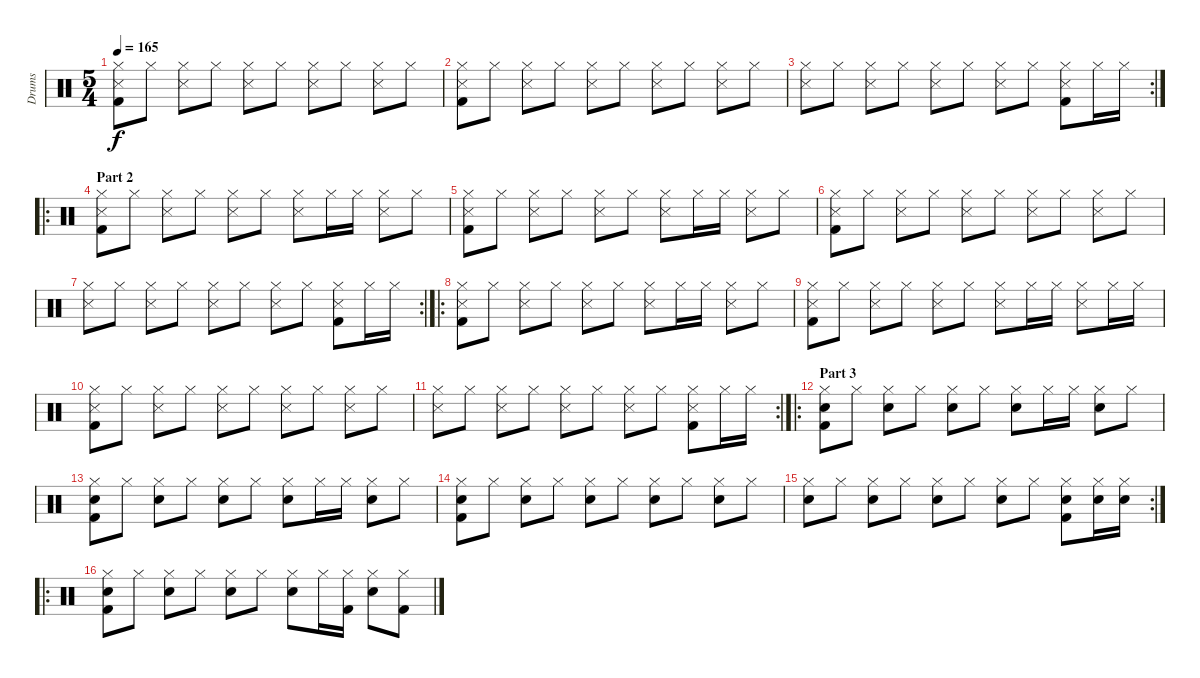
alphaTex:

\track ("Drums" "Drums") {instrument percussion}
\staff {score}
\articulation defaults
\ts (5 4)
\tempo 165
\clef neutral
\ks c
("Hi-Hat (closed)" "Snare (side stick) 3" "Kick (hit) 2").8{dy f} "Hi-Hat (closed)".8 ("Hi-Hat (closed)" "Snare (side stick) 3").8 "Hi-Hat (closed)".8 ("Hi-Hat (closed)" "Snare (side stick) 3").8 "Hi-Hat (closed)".8 ("Hi-Hat (closed)" "Snare (side stick) 3").8 "Hi-Hat (closed)".8 ("Hi-Hat (closed)" "Snare (side stick) 3").8 "Hi-Hat (closed)".8 |
("Hi-Hat (closed)" "Snare (side stick) 3" "Kick (hit) 2").8 "Hi-Hat (closed)".8 ("Hi-Hat (closed)" "Snare (side stick) 3").8 "Hi-Hat (closed)".8 ("Hi-Hat (closed)" "Snare (side stick) 3").8 "Hi-Hat (closed)".8 ("Hi-Hat (closed)" "Snare (side stick) 3").8 "Hi-Hat (closed)".8 ("Hi-Hat (closed)" "Snare (side stick) 3").8 "Hi-Hat (closed)".8 |
\rc 2
("Hi-Hat (closed)" "Snare (side stick) 3").8 "Hi-Hat (closed)".8 ("Hi-Hat (closed)" "Snare (side stick) 3").8 "Hi-Hat (closed)".8 ("Hi-Hat (closed)" "Snare (side stick) 3").8 "Hi-Hat (closed)".8 ("Hi-Hat (closed)" "Snare (side stick) 3").8 "Hi-Hat (closed)".8 ("Hi-Hat (closed)" "Snare (side stick) 3" "Kick (hit) 2").8 "Hi-Hat (closed)".16 "Hi-Hat (closed)".16 |
\ro
\section ("" "Part 2")
("Hi-Hat (closed)" "Snare (side stick) 3" "Kick (hit) 2").8 "Hi-Hat (closed)".8 ("Hi-Hat (closed)" "Snare (side stick) 3").8 "Hi-Hat (closed)".8 ("Hi-Hat (closed)" "Snare (side stick) 3").8 "Hi-Hat (closed)".8 ("Hi-Hat (closed)" "Snare (side stick) 3").8 "Hi-Hat (closed)".16 "Hi-Hat (closed)".16 ("Hi-Hat (closed)" "Snare (side stick) 3").8 "Hi-Hat (closed)".8 |
("Hi-Hat (closed)" "Snare (side stick) 3" "Kick (hit) 2").8 "Hi-Hat (closed)".8 ("Hi-Hat (closed)" "Snare (side stick) 3").8 "Hi-Hat (closed)".8 ("Hi-Hat (closed)" "Snare (side stick) 3").8 "Hi-Hat (closed)".8 ("Hi-Hat (closed)" "Snare (side stick) 3").8 "Hi-Hat (closed)".16 "Hi-Hat (closed)".16 ("Hi-Hat (closed)" "Snare (side stick) 3").8 "Hi-Hat (closed)".8 |
("Hi-Hat (closed)" "Snare (side stick) 3" "Kick (hit) 2").8 "Hi-Hat (closed)".8 ("Hi-Hat (closed)" "Snare (side stick) 3").8 "Hi-Hat (closed)".8 ("Hi-Hat (closed)" "Snare (side stick) 3").8 "Hi-Hat (closed)".8 ("Hi-Hat (closed)" "Snare (side stick) 3").8 "Hi-Hat (closed)".8 ("Hi-Hat (closed)" "Snare (side stick) 3").8 "Hi-Hat (closed)".8 |
\rc 2
("Hi-Hat (closed)" "Snare (side stick) 3").8 "Hi-Hat (closed)".8 ("Hi-Hat (closed)" "Snare (side stick) 3").8 "Hi-Hat (closed)".8 ("Hi-Hat (closed)" "Snare (side stick) 3").8 "Hi-Hat (closed)".8 ("Hi-Hat (closed)" "Snare (side stick) 3").8 "Hi-Hat (closed)".8 ("Hi-Hat (closed)" "Snare (side stick) 3" "Kick (hit) 2").8 "Hi-Hat (closed)".16 "Hi-Hat (closed)".16 |
\ro
("Hi-Hat (closed)" "Snare (side stick) 3" "Kick (hit) 2").8 "Hi-Hat (closed)".8 ("Hi-Hat (closed)" "Snare (side stick) 3").8 "Hi-Hat (closed)".8 ("Hi-Hat (closed)" "Snare (side stick) 3").8 "Hi-Hat (closed)".8 ("Hi-Hat (closed)" "Snare (side stick) 3").8 "Hi-Hat (closed)".16 "Hi-Hat (closed)".16 ("Hi-Hat (closed)" "Snare (side stick) 3").8 "Hi-Hat (closed)".8 |
("Hi-Hat (closed)" "Snare (side stick) 3" "Kick (hit) 2").8 "Hi-Hat (closed)".8 ("Hi-Hat (closed)" "Snare (side stick) 3").8 "Hi-Hat (closed)".8 ("Hi-Hat (closed)" "Snare (side stick) 3").8 "Hi-Hat (closed)".8 ("Hi-Hat (closed)" "Snare (side stick) 3").8 "Hi-Hat (closed)".16 "Hi-Hat (closed)".16 ("Hi-Hat (closed)" "Snare (side stick) 3").8 "Hi-Hat (closed)".16 "Hi-Hat (closed)".16 |
("Hi-Hat (closed)" "Snare (side stick) 3" "Kick (hit) 2").8 "Hi-Hat (closed)".8 ("Hi-Hat (closed)" "Snare (side stick) 3").8 "Hi-Hat (closed)".8 ("Hi-Hat (closed)" "Snare (side stick) 3").8 "Hi-Hat (closed)".8 ("Hi-Hat (closed)" "Snare (side stick) 3").8 "Hi-Hat (closed)".8 ("Hi-Hat (closed)" "Snare (side stick) 3").8 "Hi-Hat (closed)".8 |
\rc 2
("Hi-Hat (closed)" "Snare (side stick) 3").8 "Hi-Hat (closed)".8 ("Hi-Hat (closed)" "Snare (side stick) 3").8 "Hi-Hat (closed)".8 ("Hi-Hat (closed)" "Snare (side stick) 3").8 "Hi-Hat (closed)".8 ("Hi-Hat (closed)" "Snare (side stick) 3").8 "Hi-Hat (closed)".8 ("Hi-Hat (closed)" "Snare (side stick) 3" "Kick (hit) 2").8 "Hi-Hat (closed)".16 "Hi-Hat (closed)".16 |
\ro
\section ("" "Part 3")
("Hi-Hat (closed)" "Electric Snare (hit)" "Kick (hit) 2").8 "Hi-Hat (closed)".8 ("Hi-Hat (closed)" "Electric Snare (hit)").8 "Hi-Hat (closed)".8 ("Hi-Hat (closed)" "Electric Snare (hit)").8 "Hi-Hat (closed)".8 ("Hi-Hat (closed)" "Electric Snare (hit)").8 "Hi-Hat (closed)".16 "Hi-Hat (closed)".16 ("Hi-Hat (closed)" "Electric Snare (hit)").8 "Hi-Hat (closed)".8 |
("Hi-Hat (closed)" "Electric Snare (hit)" "Kick (hit) 2").8 "Hi-Hat (closed)".8 ("Hi-Hat (closed)" "Electric Snare (hit)").8 "Hi-Hat (closed)".8 ("Hi-Hat (closed)" "Electric Snare (hit)").8 "Hi-Hat (closed)".8 ("Hi-Hat (closed)" "Electric Snare (hit)").8 "Hi-Hat (closed)".16 "Hi-Hat (closed)".16 ("Hi-Hat (closed)" "Electric Snare (hit)").8 "Hi-Hat (closed)".8 |
("Hi-Hat (closed)" "Electric Snare (hit)" "Kick (hit) 2").8 "Hi-Hat (closed)".8 ("Hi-Hat (closed)" "Electric Snare (hit)").8 "Hi-Hat (closed)".8 ("Hi-Hat (closed)" "Electric Snare (hit)").8 "Hi-Hat (closed)".8 ("Hi-Hat (closed)" "Electric Snare (hit)").8 "Hi-Hat (closed)".8 ("Hi-Hat (closed)" "Electric Snare (hit)").8 "Hi-Hat (closed)".8 |
\rc 2
("Hi-Hat (closed)" "Electric Snare (hit)").8 "Hi-Hat (closed)".8 ("Hi-Hat (closed)" "Electric Snare (hit)").8 "Hi-Hat (closed)".8 ("Hi-Hat (closed)" "Electric Snare (hit)").8 "Hi-Hat (closed)".8 ("Hi-Hat (closed)" "Electric Snare (hit)").8 "Hi-Hat (closed)".8 ("Hi-Hat (closed)" "Electric Snare (hit)" "Kick (hit) 2").8 ("Hi-Hat (closed)" "Electric Snare (hit)").16 ("Hi-Hat (closed)" "Electric Snare (hit)").16 |
\ro
("Hi-Hat (closed)" "Electric Snare (hit)" "Kick (hit) 2").8 "Hi-Hat (closed)".8 ("Hi-Hat (closed)" "Electric Snare (hit)").8 "Hi-Hat (closed)".8 ("Hi-Hat (closed)" "Electric Snare (hit)").8 "Hi-Hat (closed)".8 ("Hi-Hat (closed)" "Electric Snare (hit)").8 "Hi-Hat (closed)".16 ("Hi-Hat (closed)" "Kick (hit) 2").16 ("Hi-Hat (closed)" "Electric Snare (hit)").8 ("Hi-Hat (closed)" "Kick (hit) 2").8
